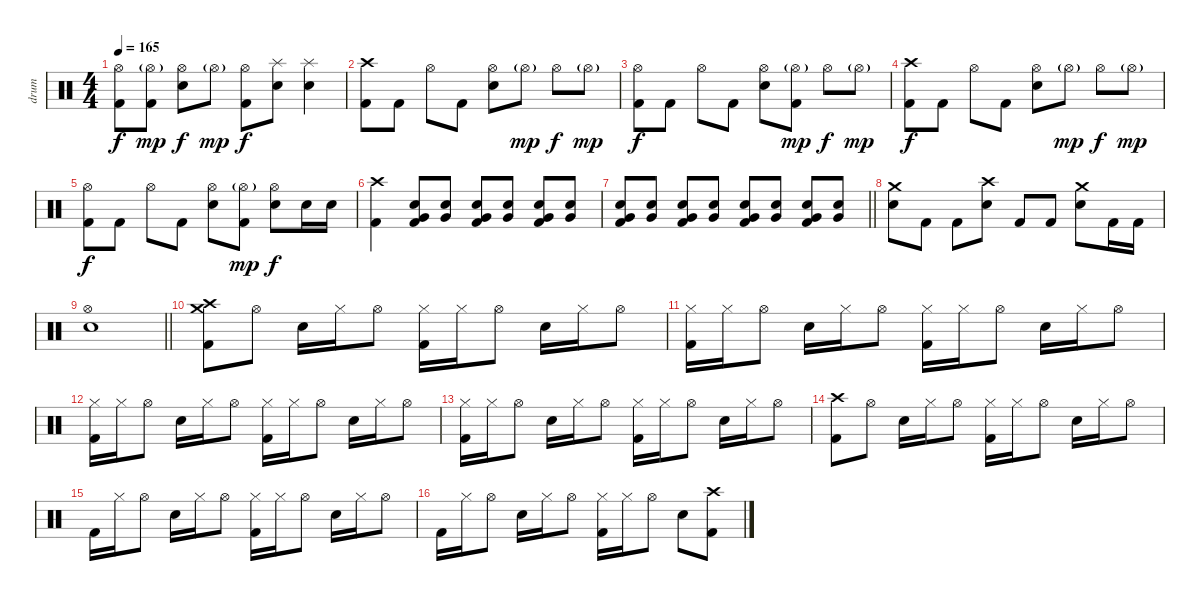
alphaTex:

\track ("drum" "drum") {instrument percussion}
\staff {score}
\articulation defaults
\ts (4 4)
\tempo 165
\clef neutral
\ks c
("Hi-Hat (open)" "Kick (hit) 2").8{dy f} ("Hi-Hat (open)"{g} "Kick (hit) 2").8{dy mp} ("Hi-Hat (open)" "Electric Snare (hit)").8{dy f} "Hi-Hat (open)"{g}.8{dy mp} ("Hi-Hat (open)" "Kick (hit) 2").8{dy f} ("Splash (hit)" "Electric Snare (hit)").8 ("Splash (hit)" "Electric Snare (hit)").4 |
("Crash high (hit)" "Kick (hit) 2").8 "Kick (hit) 2".8 "Hi-Hat (open)".8 "Kick (hit) 2".8 ("Hi-Hat (open)" "Electric Snare (hit)").8 "Hi-Hat (open)"{g}.8{dy mp} "Hi-Hat (open)".8{dy f} "Hi-Hat (open)"{g}.8{dy mp} |
("Hi-Hat (open)" "Kick (hit) 2").8{dy f} "Kick (hit) 2".8 "Hi-Hat (open)".8 "Kick (hit) 2".8 ("Hi-Hat (open)" "Electric Snare (hit)").8 ("Hi-Hat (open)"{g} "Kick (hit) 2").8{dy mp} "Hi-Hat (open)".8{dy f} "Hi-Hat (open)"{g}.8{dy mp} |
("Crash high (hit)" "Kick (hit) 2").8{dy f} "Kick (hit) 2".8 "Hi-Hat (open)".8 "Kick (hit) 2".8 ("Hi-Hat (open)" "Electric Snare (hit)").8 "Hi-Hat (open)"{g}.8{dy mp} "Hi-Hat (open)".8{dy f} "Hi-Hat (open)"{g}.8{dy mp} |
("Hi-Hat (open)" "Kick (hit) 2").8{dy f} "Kick (hit) 2".8 "Hi-Hat (open)".8 "Kick (hit) 2".8 ("Hi-Hat (open)" "Electric Snare (hit)").8 ("Hi-Hat (open)"{g} "Kick (hit) 2").8{dy mp} ("Hi-Hat (open)" "Electric Snare (hit)").8{dy f} "Electric Snare (hit)".16 "Electric Snare (hit)".16 |
("Crash high (hit)" "Kick (hit) 2").4 ("Very Low Tom (hit)" "Electric Snare (hit)" "Kick (hit) 2").8 ("Very Low Tom (hit)" "Electric Snare (hit)").8 ("Very Low Tom (hit)" "Electric Snare (hit)" "Kick (hit) 2").8 ("Very Low Tom (hit)" "Electric Snare (hit)").8 ("Very Low Tom (hit)" "Electric Snare (hit)" "Kick (hit) 2").8 ("Very Low Tom (hit)" "Electric Snare (hit)").8 |
\barLineRight lightlight
("Very Low Tom (hit)" "Electric Snare (hit)" "Kick (hit) 2").8 ("Very Low Tom (hit)" "Electric Snare (hit)").8 ("Very Low Tom (hit)" "Electric Snare (hit)" "Kick (hit) 2").8 ("Very Low Tom (hit)" "Electric Snare (hit)").8 ("Very Low Tom (hit)" "Electric Snare (hit)" "Kick (hit) 2").8 ("Very Low Tom (hit)" "Electric Snare (hit)").8 ("Very Low Tom (hit)" "Electric Snare (hit)" "Kick (hit) 2").8 ("Very Low Tom (hit)" "Electric Snare (hit)").8 |
("Crash medium (hit)" "Electric Snare (hit)").8 "Kick (hit) 2".8 "Kick (hit) 2".8 ("Crash high (hit)" "Electric Snare (hit)").8 "Kick (hit) 2".8 "Kick (hit) 2".8 ("Crash medium (hit)" "Electric Snare (hit)").8 "Kick (hit) 2".16 "Kick (hit) 2".16 |
\barLineRight lightlight
("Hi-Hat (open)" "Electric Snare (hit)").1 |
("Crash high (hit)" "Crash medium (hit)" "Kick (hit) 2").8 "Hi-Hat (open)".8 "Electric Snare (hit)".16 "Hi-Hat (closed)".16 "Hi-Hat (open)".8 ("Hi-Hat (closed)" "Kick (hit) 2").16 "Hi-Hat (closed)".16 "Hi-Hat (open)".8 "Electric Snare (hit)".16 "Hi-Hat (closed)".16 "Hi-Hat (open)".8 |
("Hi-Hat (closed)" "Kick (hit) 2").16 "Hi-Hat (closed)".16 "Hi-Hat (open)".8 "Electric Snare (hit)".16 "Hi-Hat (closed)".16 "Hi-Hat (open)".8 ("Hi-Hat (closed)" "Kick (hit) 2").16 "Hi-Hat (closed)".16 "Hi-Hat (open)".8 "Electric Snare (hit)".16 "Hi-Hat (closed)".16 "Hi-Hat (open)".8 |
("Hi-Hat (closed)" "Kick (hit) 2").16 "Hi-Hat (closed)".16 "Hi-Hat (open)".8 "Electric Snare (hit)".16 "Hi-Hat (closed)".16 "Hi-Hat (open)".8 ("Hi-Hat (closed)" "Kick (hit) 2").16 "Hi-Hat (closed)".16 "Hi-Hat (open)".8 "Electric Snare (hit)".16 "Hi-Hat (closed)".16 "Hi-Hat (open)".8 |
("Hi-Hat (closed)" "Kick (hit) 2").16 "Hi-Hat (closed)".16 "Hi-Hat (open)".8 "Electric Snare (hit)".16 "Hi-Hat (closed)".16 "Hi-Hat (open)".8 ("Hi-Hat (closed)" "Kick (hit) 2").16 "Hi-Hat (closed)".16 "Hi-Hat (open)".8 "Electric Snare (hit)".16 "Hi-Hat (closed)".16 "Hi-Hat (open)".8 |
("Crash high (hit)" "Kick (hit) 2").8 "Hi-Hat (open)".8 "Electric Snare (hit)".16 "Hi-Hat (closed)".16 "Hi-Hat (open)".8 ("Hi-Hat (closed)" "Kick (hit) 2").16 "Hi-Hat (closed)".16 "Hi-Hat (open)".8 "Electric Snare (hit)".16 "Hi-Hat (closed)".16 "Hi-Hat (open)".8 |
"Kick (hit) 2".16 "Hi-Hat (closed)".16 "Hi-Hat (open)".8 "Electric Snare (hit)".16 "Hi-Hat (closed)".16 "Hi-Hat (open)".8 ("Hi-Hat (closed)" "Kick (hit) 2").16 "Hi-Hat (closed)".16 "Hi-Hat (open)".8 "Electric Snare (hit)".16 "Hi-Hat (closed)".16 "Hi-Hat (open)".8 |
"Kick (hit) 2".16 "Hi-Hat (closed)".16 "Hi-Hat (open)".8 "Electric Snare (hit)".16 "Hi-Hat (closed)".16 "Hi-Hat (open)".8 ("Hi-Hat (closed)" "Kick (hit) 2").16 "Hi-Hat (closed)".16 "Hi-Hat (open)".8 "Electric Snare (hit)".8 ("Crash high (hit)" "Kick (hit) 2").8
